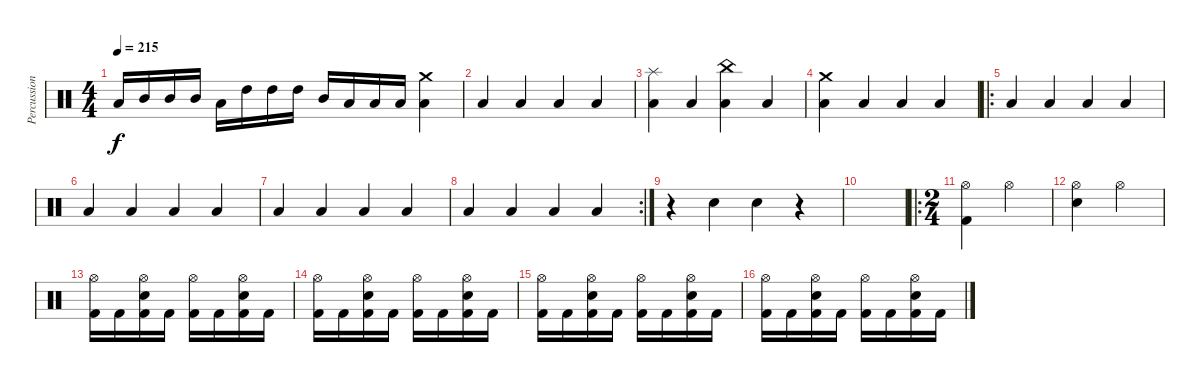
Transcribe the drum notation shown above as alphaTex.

\track ("Percussion" "Percussion") {instrument percussion}
\staff {score}
\articulation defaults
\ts (4 4)
\tempo 215
\clef neutral
\ks c "Low Tom (hit)".16{dy f} "Mid Tom (hit)".16 "Mid Tom (hit)".16 "Mid Tom (hit)".16 "Low Tom (hit)".16 "High Tom (hit)".16 "High Tom (hit)".16 "High Tom (hit)".16 "Mid Tom (hit)".16 "Low Tom (hit)".16 "Low Tom (hit)".16 "Low Tom (hit)".16
("Crash medium (hit)" "Low Tom (hit)").4 |
"Low Tom (hit)".4 "Low Tom (hit)".4 "Low Tom (hit)".4 "Low Tom (hit)".4 |
("Splash (hit)" "Low Tom (hit)").4 "Low Tom (hit)".4 ("China (hit)" "Low Tom (hit)").4 "Low Tom (hit)".4 |
("Crash medium (hit)" "Low Tom (hit)").4 "Low Tom (hit)".4 "Low Tom (hit)".4 "Low Tom (hit)".4 |
\ro "Low Tom (hit)".4 "Low Tom (hit)".4 "Low Tom (hit)".4 "Low Tom (hit)".4
|
"Low Tom (hit)".4 "Low Tom (hit)".4 "Low Tom (hit)".4 "Low Tom (hit)".4 |
"Low Tom (hit)".4 "Low Tom (hit)".4 "Low Tom (hit)".4 "Low Tom (hit)".4 |
\rc 2 "Low Tom (hit)".4 "Low Tom (hit)".4 "Low Tom (hit)".4 "Low Tom (hit)".4
|
r.4 "Snare (hit) 2".4 "Snare (hit) 2".4 r.4 |
|
\ro
\ts (2 4)
("Kick (hit) 2" "Hi-Hat (open)").4 "Hi-Hat (open)".4 |
("Snare (hit) 2" "Hi-Hat (open)").4 "Hi-Hat (open)".4 |
("Kick (hit) 2" "Hi-Hat (open)").16 "Kick (hit) 2".16 ("Kick (hit) 2" "Snare (hit) 2" "Hi-Hat (open)").16 "Kick (hit) 2".16 ("Kick (hit) 2" "Hi-Hat (open)").16 "Kick (hit) 2".16 ("Kick (hit) 2" "Snare (hit) 2" "Hi-Hat (open)").16 "Kick (hit) 2".16 |
("Kick (hit) 2" "Hi-Hat (open)").16 "Kick (hit) 2".16 ("Kick (hit) 2" "Snare (hit) 2" "Hi-Hat (open)").16 "Kick (hit) 2".16 ("Kick (hit) 2" "Hi-Hat (open)").16 "Kick (hit) 2".16 ("Kick (hit) 2" "Snare (hit) 2" "Hi-Hat (open)").16 "Kick (hit) 2".16 |
("Kick (hit) 2" "Hi-Hat (open)").16 "Kick (hit) 2".16 ("Kick (hit) 2" "Snare (hit) 2" "Hi-Hat (open)").16 "Kick (hit) 2".16 ("Kick (hit) 2" "Hi-Hat (open)").16 "Kick (hit) 2".16 ("Kick (hit) 2" "Snare (hit) 2" "Hi-Hat (open)").16 "Kick (hit) 2".16 |
("Kick (hit) 2" "Hi-Hat (open)").16 "Kick (hit) 2".16 ("Kick (hit) 2" "Snare (hit) 2" "Hi-Hat (open)").16 "Kick (hit) 2".16 ("Kick (hit) 2" "Hi-Hat (open)").16 "Kick (hit) 2".16 ("Kick (hit) 2" "Snare (hit) 2" "Hi-Hat (open)").16 "Kick (hit) 2".16
